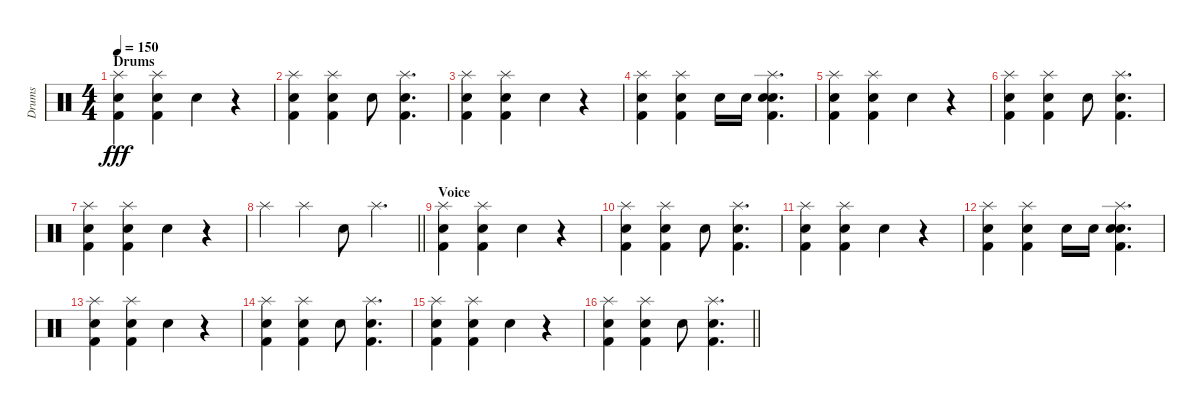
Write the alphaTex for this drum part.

\track ("Drums" "Drums") {instrument percussion}
\staff {score}
\articulation defaults
\ts (4 4)
\section ("" "Drums")
\tempo 150
\clef neutral
\ks c
("Splash (hit)" "Electric Snare (hit)" "Kick (hit) 2").4{dy fff} ("Splash (hit)" "Electric Snare (hit)" "Kick (hit) 2").4 "Hand Clap (hit)".4 r.4 |
("Splash (hit)" "Electric Snare (hit)" "Kick (hit) 2").4 ("Splash (hit)" "Electric Snare (hit)" "Kick (hit) 2").4 "Hand Clap (hit)".8 ("Splash (hit)" "Electric Snare (hit)" "Kick (hit) 2").4{d} |
("Splash (hit)" "Electric Snare (hit)" "Kick (hit) 2").4 ("Splash (hit)" "Electric Snare (hit)" "Kick (hit) 2").4 "Hand Clap (hit)".4 r.4 |
("Splash (hit)" "Electric Snare (hit)" "Kick (hit) 2").4 ("Splash (hit)" "Electric Snare (hit)" "Kick (hit) 2").4 "Hand Clap (hit)".16 "Hand Clap (hit)".16 ("Splash (hit)" "Electric Snare (hit)" "Hand Clap (hit)" "Kick (hit) 2").4{d} |
("Splash (hit)" "Electric Snare (hit)" "Kick (hit) 2").4 ("Splash (hit)" "Electric Snare (hit)" "Kick (hit) 2").4 "Hand Clap (hit)".4 r.4 |
("Splash (hit)" "Electric Snare (hit)" "Kick (hit) 2").4 ("Splash (hit)" "Electric Snare (hit)" "Kick (hit) 2").4 "Hand Clap (hit)".8 ("Splash (hit)" "Electric Snare (hit)" "Kick (hit) 2").4{d} |
("Splash (hit)" "Electric Snare (hit)" "Kick (hit) 2").4 ("Splash (hit)" "Electric Snare (hit)" "Kick (hit) 2").4 "Hand Clap (hit)".4 r.4 |
\barLineRight lightlight "Splash (hit)".4 "Splash (hit)".4 "Hand Clap (hit)".8 "Splash (hit)".4{d}
|
\section ("" "Voice")
("Splash (hit)" "Electric Snare (hit)" "Kick (hit) 2").4 ("Splash (hit)" "Electric Snare (hit)" "Kick (hit) 2").4 "Hand Clap (hit)".4 r.4 |
("Splash (hit)" "Electric Snare (hit)" "Kick (hit) 2").4 ("Splash (hit)" "Electric Snare (hit)" "Kick (hit) 2").4 "Hand Clap (hit)".8 ("Splash (hit)" "Electric Snare (hit)" "Kick (hit) 2").4{d} |
("Splash (hit)" "Electric Snare (hit)" "Kick (hit) 2").4 ("Splash (hit)" "Electric Snare (hit)" "Kick (hit) 2").4 "Hand Clap (hit)".4 r.4 |
("Splash (hit)" "Electric Snare (hit)" "Kick (hit) 2").4 ("Splash (hit)" "Electric Snare (hit)" "Kick (hit) 2").4 "Hand Clap (hit)".16 "Hand Clap (hit)".16 ("Splash (hit)" "Electric Snare (hit)" "Hand Clap (hit)" "Kick (hit) 2").4{d} |
("Splash (hit)" "Electric Snare (hit)" "Kick (hit) 2").4 ("Splash (hit)" "Electric Snare (hit)" "Kick (hit) 2").4 "Hand Clap (hit)".4 r.4 |
("Splash (hit)" "Electric Snare (hit)" "Kick (hit) 2").4 ("Splash (hit)" "Electric Snare (hit)" "Kick (hit) 2").4 "Hand Clap (hit)".8 ("Splash (hit)" "Electric Snare (hit)" "Kick (hit) 2").4{d} |
("Splash (hit)" "Electric Snare (hit)" "Kick (hit) 2").4 ("Splash (hit)" "Electric Snare (hit)" "Kick (hit) 2").4 "Hand Clap (hit)".4 r.4 |
\barLineRight lightlight
("Splash (hit)" "Electric Snare (hit)" "Kick (hit) 2").4 ("Splash (hit)" "Electric Snare (hit)" "Kick (hit) 2").4 "Hand Clap (hit)".8 ("Splash (hit)" "Electric Snare (hit)" "Kick (hit) 2").4{d}
